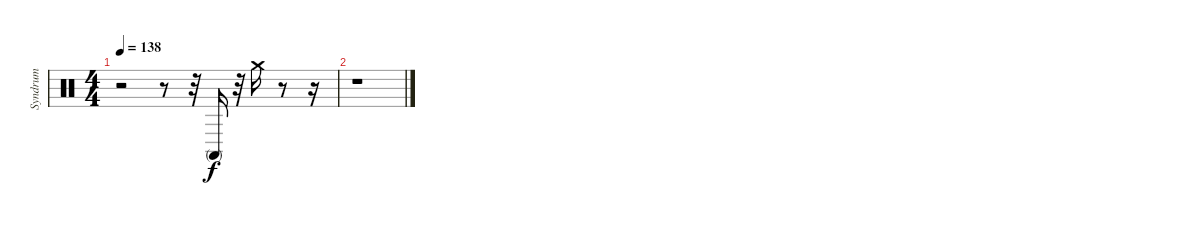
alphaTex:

\track ("Syndrum" "Syndrum") {instrument percussion}
\staff {score}
\articulation defaults
\ts (4 4)
\tempo 138
\clef neutral
\ks c
r.2{dy f} r.8 r.32 "Conga high (mute)".16 r.32 "Crash medium (hit)".16 r.8 r.16 |
r.1
